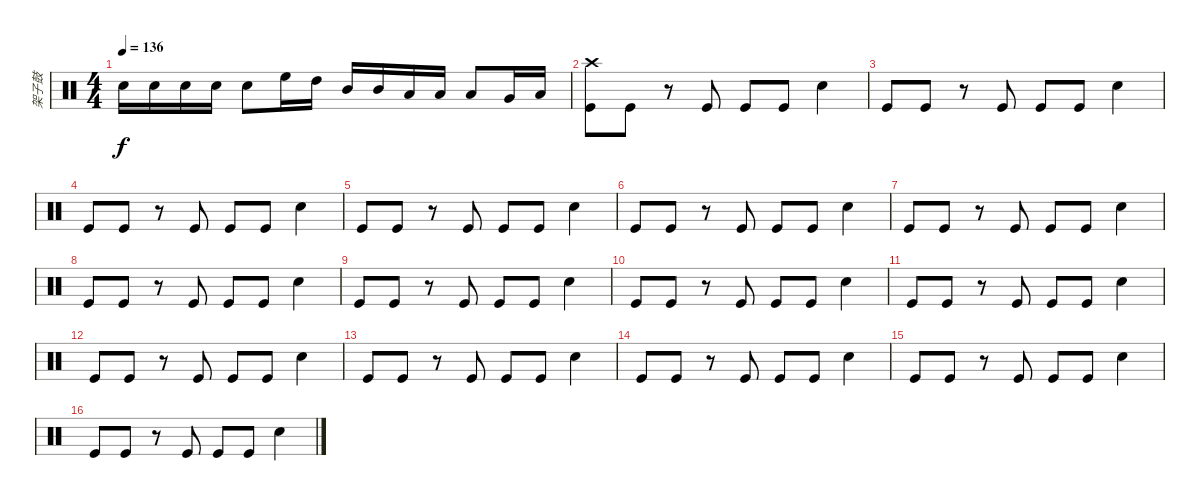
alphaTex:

\track ("架子鼓" "架子鼓") {instrument percussion}
\staff {score}
\articulation defaults
\ts (4 4)
\tempo 136
\clef neutral
\ks c "Snare (hit) 2".16{dy f} "Snare (hit) 2".16 "Snare (hit) 2".16 "Snare (hit) 2".16 "Snare (hit) 2".8 "High Floor Tom (hit)".16 "High Tom (hit)".16 "Mid Tom (hit)".16 "Mid Tom (hit)".16 "Low Tom (hit)".16 "Low Tom (hit)".16 "Low Tom (hit)".8 "Very Low Tom (hit)".16 "Low Floor Tom (hit)".16
|
("Crash high (hit)" "Kick (hit)").8 "Kick (hit)".8 r.8 "Kick (hit)".8 "Kick (hit)".8 "Kick (hit)".8 "Snare (hit) 2".4 |
"Kick (hit)".8 "Kick (hit)".8 r.8 "Kick (hit)".8 "Kick (hit)".8 "Kick (hit)".8 "Snare (hit) 2".4 |
"Kick (hit)".8 "Kick (hit)".8 r.8 "Kick (hit)".8 "Kick (hit)".8 "Kick (hit)".8 "Snare (hit) 2".4 |
"Kick (hit)".8 "Kick (hit)".8 r.8 "Kick (hit)".8 "Kick (hit)".8 "Kick (hit)".8 "Snare (hit) 2".4 |
"Kick (hit)".8 "Kick (hit)".8 r.8 "Kick (hit)".8 "Kick (hit)".8 "Kick (hit)".8 "Snare (hit) 2".4 |
"Kick (hit)".8 "Kick (hit)".8 r.8 "Kick (hit)".8 "Kick (hit)".8 "Kick (hit)".8 "Snare (hit) 2".4 |
"Kick (hit)".8 "Kick (hit)".8 r.8 "Kick (hit)".8 "Kick (hit)".8 "Kick (hit)".8 "Snare (hit) 2".4 |
"Kick (hit)".8 "Kick (hit)".8 r.8 "Kick (hit)".8 "Kick (hit)".8 "Kick (hit)".8 "Snare (hit) 2".4 |
"Kick (hit)".8 "Kick (hit)".8 r.8 "Kick (hit)".8 "Kick (hit)".8 "Kick (hit)".8 "Snare (hit) 2".4 |
"Kick (hit)".8 "Kick (hit)".8 r.8 "Kick (hit)".8 "Kick (hit)".8 "Kick (hit)".8 "Snare (hit) 2".4 |
"Kick (hit)".8 "Kick (hit)".8 r.8 "Kick (hit)".8 "Kick (hit)".8 "Kick (hit)".8 "Snare (hit) 2".4 |
"Kick (hit)".8 "Kick (hit)".8 r.8 "Kick (hit)".8 "Kick (hit)".8 "Kick (hit)".8 "Snare (hit) 2".4 |
"Kick (hit)".8 "Kick (hit)".8 r.8 "Kick (hit)".8 "Kick (hit)".8 "Kick (hit)".8 "Snare (hit) 2".4 |
"Kick (hit)".8 "Kick (hit)".8 r.8 "Kick (hit)".8 "Kick (hit)".8 "Kick (hit)".8 "Snare (hit) 2".4 |
"Kick (hit)".8 "Kick (hit)".8 r.8 "Kick (hit)".8 "Kick (hit)".8 "Kick (hit)".8 "Snare (hit) 2".4
